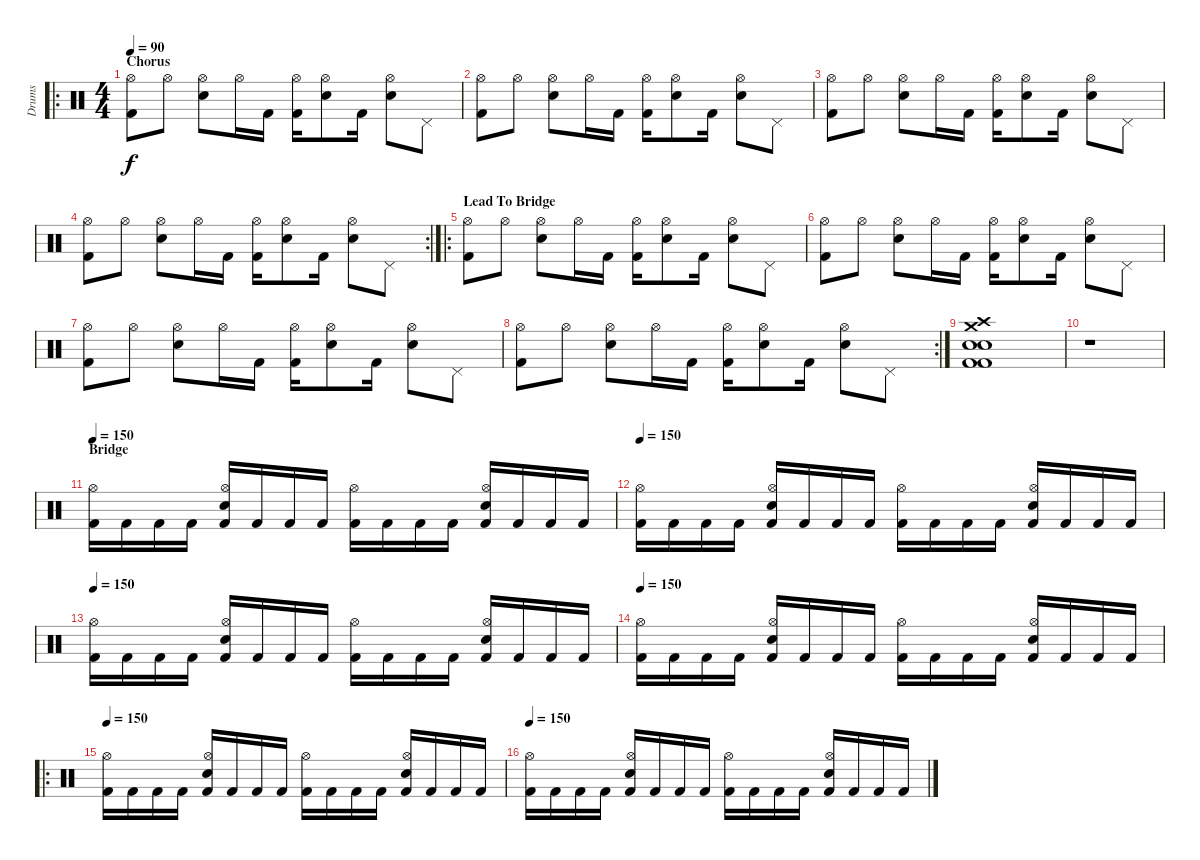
\track ("Drums" "Drums") {instrument percussion}
\staff {score}
\articulation defaults
\ro
\ts (4 4)
\section ("" "Chorus")
\tempo 90
\clef neutral
\ks c
("Kick (hit) 2" "Hi-Hat (open)").8{dy f} "Hi-Hat (open)".8 ("Electric Snare (hit)" "Hi-Hat (open)").8 "Hi-Hat (open)".16 "Kick (hit) 2".16 ("Kick (hit) 2" "Hi-Hat (open)").16 ("Electric Snare (hit)" "Hi-Hat (open)").8 "Kick (hit) 2".16 ("Electric Snare (hit)" "Hi-Hat (open)").8 "Pedal Hi-Hat (hit)".8 |
("Kick (hit) 2" "Hi-Hat (open)").8 "Hi-Hat (open)".8 ("Electric Snare (hit)" "Hi-Hat (open)").8 "Hi-Hat (open)".16 "Kick (hit) 2".16 ("Kick (hit) 2" "Hi-Hat (open)").16 ("Electric Snare (hit)" "Hi-Hat (open)").8 "Kick (hit) 2".16 ("Electric Snare (hit)" "Hi-Hat (open)").8 "Pedal Hi-Hat (hit)".8 |
("Kick (hit) 2" "Hi-Hat (open)").8 "Hi-Hat (open)".8 ("Electric Snare (hit)" "Hi-Hat (open)").8 "Hi-Hat (open)".16 "Kick (hit) 2".16 ("Kick (hit) 2" "Hi-Hat (open)").16 ("Electric Snare (hit)" "Hi-Hat (open)").8 "Kick (hit) 2".16 ("Electric Snare (hit)" "Hi-Hat (open)").8 "Pedal Hi-Hat (hit)".8 |
\rc 2
("Kick (hit) 2" "Hi-Hat (open)").8 "Hi-Hat (open)".8 ("Electric Snare (hit)" "Hi-Hat (open)").8 "Hi-Hat (open)".16 "Kick (hit) 2".16 ("Kick (hit) 2" "Hi-Hat (open)").16 ("Electric Snare (hit)" "Hi-Hat (open)").8 "Kick (hit) 2".16 ("Electric Snare (hit)" "Hi-Hat (open)").8 "Pedal Hi-Hat (hit)".8 |
\ro
\section ("" "Lead To Bridge")
("Kick (hit) 2" "Hi-Hat (open)").8 "Hi-Hat (open)".8 ("Electric Snare (hit)" "Hi-Hat (open)").8 "Hi-Hat (open)".16 "Kick (hit) 2".16 ("Kick (hit) 2" "Hi-Hat (open)").16 ("Electric Snare (hit)" "Hi-Hat (open)").8 "Kick (hit) 2".16 ("Electric Snare (hit)" "Hi-Hat (open)").8 "Pedal Hi-Hat (hit)".8 |
("Kick (hit) 2" "Hi-Hat (open)").8 "Hi-Hat (open)".8 ("Electric Snare (hit)" "Hi-Hat (open)").8 "Hi-Hat (open)".16 "Kick (hit) 2".16 ("Kick (hit) 2" "Hi-Hat (open)").16 ("Electric Snare (hit)" "Hi-Hat (open)").8 "Kick (hit) 2".16 ("Electric Snare (hit)" "Hi-Hat (open)").8 "Pedal Hi-Hat (hit)".8 |
("Kick (hit) 2" "Hi-Hat (open)").8 "Hi-Hat (open)".8 ("Electric Snare (hit)" "Hi-Hat (open)").8 "Hi-Hat (open)".16 "Kick (hit) 2".16 ("Kick (hit) 2" "Hi-Hat (open)").16 ("Electric Snare (hit)" "Hi-Hat (open)").8 "Kick (hit) 2".16 ("Electric Snare (hit)" "Hi-Hat (open)").8 "Pedal Hi-Hat (hit)".8 |
\rc 2
("Kick (hit) 2" "Hi-Hat (open)").8 "Hi-Hat (open)".8 ("Electric Snare (hit)" "Hi-Hat (open)").8 "Hi-Hat (open)".16 "Kick (hit) 2".16 ("Kick (hit) 2" "Hi-Hat (open)").16 ("Electric Snare (hit)" "Hi-Hat (open)").8 "Kick (hit) 2".16 ("Electric Snare (hit)" "Hi-Hat (open)").8 "Pedal Hi-Hat (hit)".8 |
("Crash high (hit)" "Crash medium (hit)" "Electric Snare (hit)" "Electric Snare (hit)" "Kick (hit) 2" "Kick (hit) 2").1 |
r.1 |
\section ("" "Bridge")
\tempo 150
("Kick (hit) 2" "Hi-Hat (open)").16 "Kick (hit) 2".16 "Kick (hit) 2".16 "Kick (hit) 2".16 ("Kick (hit) 2" "Hi-Hat (open)" "Electric Snare (hit)").16 "Kick (hit) 2".16 "Kick (hit) 2".16 "Kick (hit) 2".16 ("Kick (hit) 2" "Hi-Hat (open)").16 "Kick (hit) 2".16 "Kick (hit) 2".16 "Kick (hit) 2".16 ("Kick (hit) 2" "Hi-Hat (open)" "Electric Snare (hit)").16 "Kick (hit) 2".16 "Kick (hit) 2".16 "Kick (hit) 2".16 |
\tempo 150
("Kick (hit) 2" "Hi-Hat (open)").16 "Kick (hit) 2".16 "Kick (hit) 2".16 "Kick (hit) 2".16 ("Kick (hit) 2" "Hi-Hat (open)" "Electric Snare (hit)").16 "Kick (hit) 2".16 "Kick (hit) 2".16 "Kick (hit) 2".16 ("Kick (hit) 2" "Hi-Hat (open)").16 "Kick (hit) 2".16 "Kick (hit) 2".16 "Kick (hit) 2".16 ("Kick (hit) 2" "Hi-Hat (open)" "Electric Snare (hit)").16 "Kick (hit) 2".16 "Kick (hit) 2".16 "Kick (hit) 2".16 |
\tempo 150
("Kick (hit) 2" "Hi-Hat (open)").16 "Kick (hit) 2".16 "Kick (hit) 2".16 "Kick (hit) 2".16 ("Kick (hit) 2" "Hi-Hat (open)" "Electric Snare (hit)").16 "Kick (hit) 2".16 "Kick (hit) 2".16 "Kick (hit) 2".16 ("Kick (hit) 2" "Hi-Hat (open)").16 "Kick (hit) 2".16 "Kick (hit) 2".16 "Kick (hit) 2".16 ("Kick (hit) 2" "Hi-Hat (open)" "Electric Snare (hit)").16 "Kick (hit) 2".16 "Kick (hit) 2".16 "Kick (hit) 2".16 |
\tempo 150
("Kick (hit) 2" "Hi-Hat (open)").16 "Kick (hit) 2".16 "Kick (hit) 2".16 "Kick (hit) 2".16 ("Kick (hit) 2" "Hi-Hat (open)" "Electric Snare (hit)").16 "Kick (hit) 2".16 "Kick (hit) 2".16 "Kick (hit) 2".16 ("Kick (hit) 2" "Hi-Hat (open)").16 "Kick (hit) 2".16 "Kick (hit) 2".16 "Kick (hit) 2".16 ("Kick (hit) 2" "Hi-Hat (open)" "Electric Snare (hit)").16 "Kick (hit) 2".16 "Kick (hit) 2".16 "Kick (hit) 2".16 |
\ro
\tempo 150
("Kick (hit) 2" "Hi-Hat (open)").16 "Kick (hit) 2".16 "Kick (hit) 2".16 "Kick (hit) 2".16 ("Kick (hit) 2" "Hi-Hat (open)" "Electric Snare (hit)").16 "Kick (hit) 2".16 "Kick (hit) 2".16 "Kick (hit) 2".16 ("Kick (hit) 2" "Hi-Hat (open)").16 "Kick (hit) 2".16 "Kick (hit) 2".16 "Kick (hit) 2".16 ("Kick (hit) 2" "Hi-Hat (open)" "Electric Snare (hit)").16 "Kick (hit) 2".16 "Kick (hit) 2".16 "Kick (hit) 2".16 |
\tempo 150
("Kick (hit) 2" "Hi-Hat (open)").16 "Kick (hit) 2".16 "Kick (hit) 2".16 "Kick (hit) 2".16 ("Kick (hit) 2" "Hi-Hat (open)" "Electric Snare (hit)").16 "Kick (hit) 2".16 "Kick (hit) 2".16 "Kick (hit) 2".16 ("Kick (hit) 2" "Hi-Hat (open)").16 "Kick (hit) 2".16 "Kick (hit) 2".16 "Kick (hit) 2".16 ("Kick (hit) 2" "Hi-Hat (open)" "Electric Snare (hit)").16 "Kick (hit) 2".16 "Kick (hit) 2".16 "Kick (hit) 2".16
